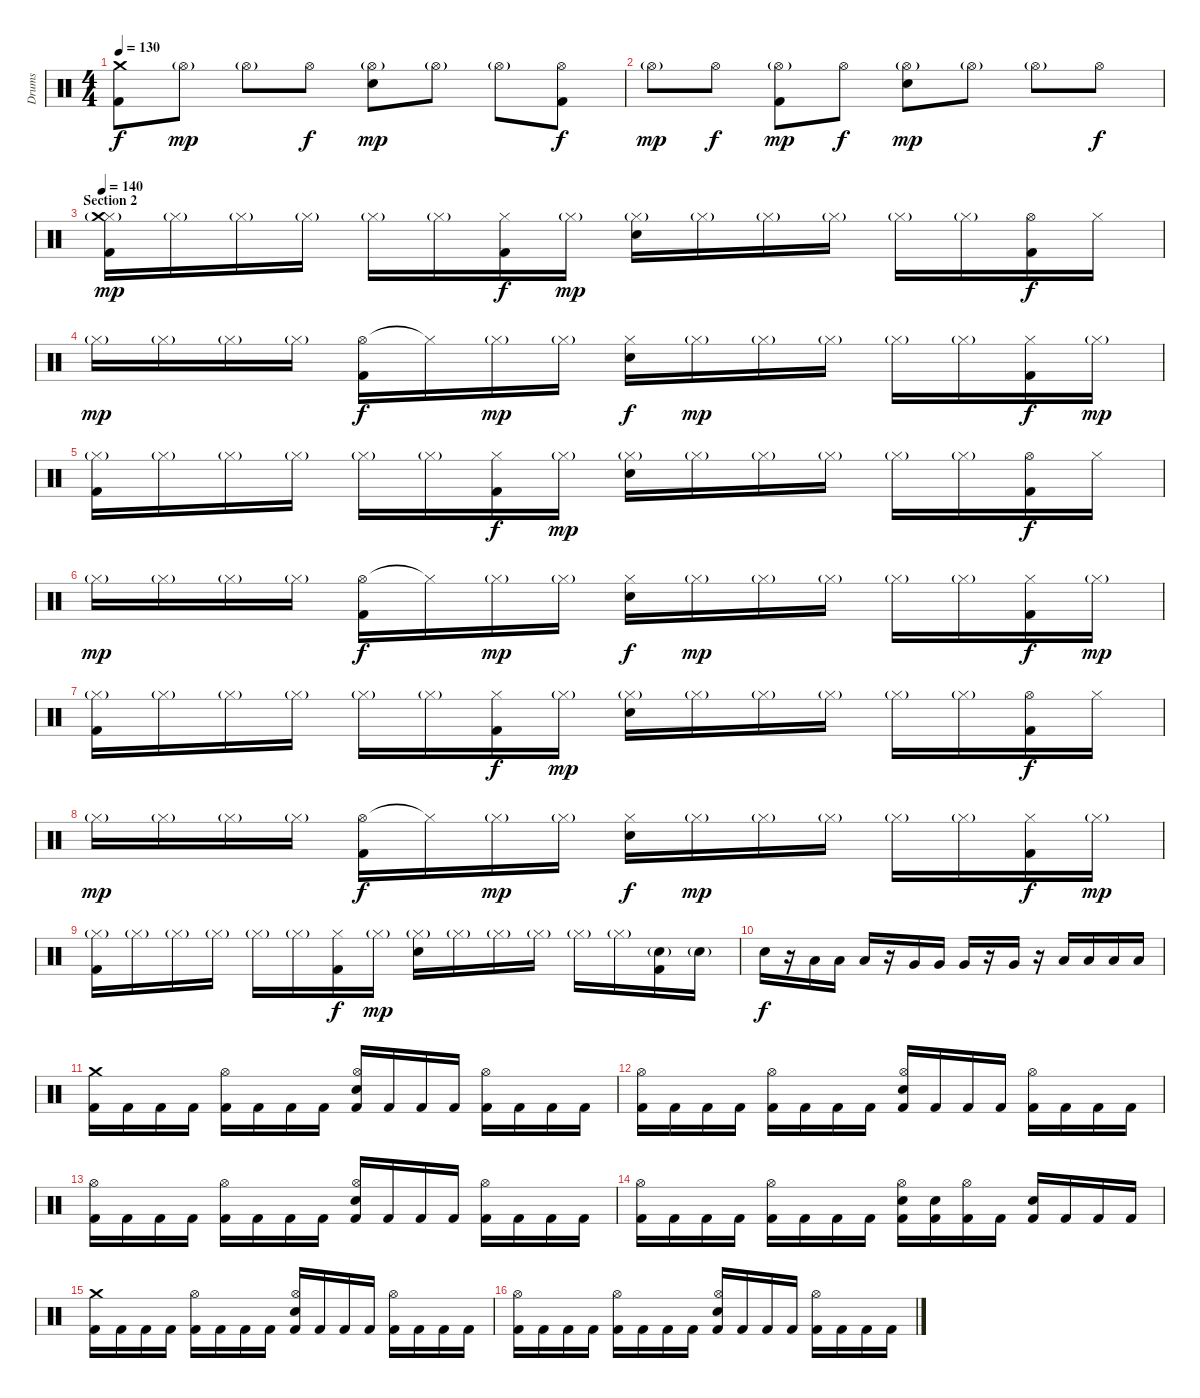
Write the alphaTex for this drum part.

\track ("Drums" "Drums") {instrument percussion}
\staff {score}
\articulation defaults
\ts (4 4)
\tempo 130
\clef neutral
\ks c
("Crash medium (hit)" "Kick (hit) 2").8{dy f} "Hi-Hat (open)"{g}.8{dy mp} "Hi-Hat (open)"{g}.8 "Hi-Hat (open)".8{dy f} ("Hi-Hat (open)"{g} "Electric Snare (hit)").8{dy mp} "Hi-Hat (open)"{g}.8 "Hi-Hat (open)"{g}.8 ("Hi-Hat (open)" "Kick (hit) 2").8{dy f} |
"Hi-Hat (open)"{g}.8{dy mp} "Hi-Hat (open)".8{dy f} ("Hi-Hat (open)"{g} "Kick (hit) 2").8{dy mp} "Hi-Hat (open)".8{dy f} ("Hi-Hat (open)"{g} "Electric Snare (hit)").8{dy mp} "Hi-Hat (open)"{g}.8 "Hi-Hat (open)"{g}.8 "Hi-Hat (open)".8{dy f} |
\section ("" "Section 2")
\tempo 140
("Hi-Hat (closed)"{g} "Crash medium (hit)"{g} "Kick (hit) 2").16{dy mp} "Hi-Hat (closed)"{g}.16 "Hi-Hat (closed)"{g}.16 "Hi-Hat (closed)"{g}.16 "Hi-Hat (closed)"{g}.16 "Hi-Hat (closed)"{g}.16 ("Hi-Hat (closed)" "Kick (hit) 2").16{dy f} "Hi-Hat (closed)"{g}.16{dy mp} ("Hi-Hat (closed)"{g} "Electric Snare (hit)").16 "Hi-Hat (closed)"{g}.16 "Hi-Hat (closed)"{g}.16 "Hi-Hat (closed)"{g}.16 "Hi-Hat (closed)"{g}.16 "Hi-Hat (closed)"{g}.16 ("Hi-Hat (open)" "Kick (hit) 2").16{dy f} "Hi-Hat (closed)".16 |
"Hi-Hat (closed)"{g}.16{dy mp} "Hi-Hat (closed)"{g}.16 "Hi-Hat (closed)"{g}.16 "Hi-Hat (closed)"{g}.16 ("Hi-Hat (open)" "Kick (hit) 2").16{dy f} "Hi-Hat (closed)"{t}.16 "Hi-Hat (closed)"{g}.16{dy mp} "Hi-Hat (closed)"{g}.16 ("Hi-Hat (closed)" "Electric Snare (hit)").16{dy f} "Hi-Hat (closed)"{g}.16{dy mp} "Hi-Hat (closed)"{g}.16 "Hi-Hat (closed)"{g}.16 "Hi-Hat (closed)"{g}.16 "Hi-Hat (closed)"{g}.16 ("Hi-Hat (closed)" "Kick (hit) 2").16{dy f} "Hi-Hat (closed)"{g}.16{dy mp} |
("Hi-Hat (closed)"{g} "Kick (hit) 2").16 "Hi-Hat (closed)"{g}.16 "Hi-Hat (closed)"{g}.16 "Hi-Hat (closed)"{g}.16 "Hi-Hat (closed)"{g}.16 "Hi-Hat (closed)"{g}.16 ("Hi-Hat (closed)" "Kick (hit) 2").16{dy f} "Hi-Hat (closed)"{g}.16{dy mp} ("Hi-Hat (closed)"{g} "Electric Snare (hit)").16 "Hi-Hat (closed)"{g}.16 "Hi-Hat (closed)"{g}.16 "Hi-Hat (closed)"{g}.16 "Hi-Hat (closed)"{g}.16 "Hi-Hat (closed)"{g}.16 ("Hi-Hat (open)" "Kick (hit) 2").16{dy f} "Hi-Hat (closed)".16 |
"Hi-Hat (closed)"{g}.16{dy mp} "Hi-Hat (closed)"{g}.16 "Hi-Hat (closed)"{g}.16 "Hi-Hat (closed)"{g}.16 ("Hi-Hat (open)" "Kick (hit) 2").16{dy f} "Hi-Hat (closed)"{t}.16 "Hi-Hat (closed)"{g}.16{dy mp} "Hi-Hat (closed)"{g}.16 ("Hi-Hat (closed)" "Electric Snare (hit)").16{dy f} "Hi-Hat (closed)"{g}.16{dy mp} "Hi-Hat (closed)"{g}.16 "Hi-Hat (closed)"{g}.16 "Hi-Hat (closed)"{g}.16 "Hi-Hat (closed)"{g}.16 ("Hi-Hat (closed)" "Kick (hit) 2").16{dy f} "Hi-Hat (closed)"{g}.16{dy mp} |
("Hi-Hat (closed)"{g} "Kick (hit) 2").16 "Hi-Hat (closed)"{g}.16 "Hi-Hat (closed)"{g}.16 "Hi-Hat (closed)"{g}.16 "Hi-Hat (closed)"{g}.16 "Hi-Hat (closed)"{g}.16 ("Hi-Hat (closed)" "Kick (hit) 2").16{dy f} "Hi-Hat (closed)"{g}.16{dy mp} ("Hi-Hat (closed)"{g} "Electric Snare (hit)").16 "Hi-Hat (closed)"{g}.16 "Hi-Hat (closed)"{g}.16 "Hi-Hat (closed)"{g}.16 "Hi-Hat (closed)"{g}.16 "Hi-Hat (closed)"{g}.16 ("Hi-Hat (open)" "Kick (hit) 2").16{dy f} "Hi-Hat (closed)".16 |
"Hi-Hat (closed)"{g}.16{dy mp} "Hi-Hat (closed)"{g}.16 "Hi-Hat (closed)"{g}.16 "Hi-Hat (closed)"{g}.16 ("Hi-Hat (open)" "Kick (hit) 2").16{dy f} "Hi-Hat (closed)"{t}.16 "Hi-Hat (closed)"{g}.16{dy mp} "Hi-Hat (closed)"{g}.16 ("Hi-Hat (closed)" "Electric Snare (hit)").16{dy f} "Hi-Hat (closed)"{g}.16{dy mp} "Hi-Hat (closed)"{g}.16 "Hi-Hat (closed)"{g}.16 "Hi-Hat (closed)"{g}.16 "Hi-Hat (closed)"{g}.16 ("Hi-Hat (closed)" "Kick (hit) 2").16{dy f} "Hi-Hat (closed)"{g}.16{dy mp} |
("Hi-Hat (closed)"{g} "Kick (hit) 2").16 "Hi-Hat (closed)"{g}.16 "Hi-Hat (closed)"{g}.16 "Hi-Hat (closed)"{g}.16 "Hi-Hat (closed)"{g}.16 "Hi-Hat (closed)"{g}.16 ("Hi-Hat (closed)" "Kick (hit) 2").16{dy f} "Hi-Hat (closed)"{g}.16{dy mp} ("Hi-Hat (closed)"{g} "Electric Snare (hit)").16 "Hi-Hat (closed)"{g}.16 "Hi-Hat (closed)"{g}.16 "Hi-Hat (closed)"{g}.16 "Hi-Hat (closed)"{g}.16 "Hi-Hat (closed)"{g}.16 ("Electric Snare (hit)"{g} "Kick (hit) 2").16 "Electric Snare (hit)"{g}.16 |
"Electric Snare (hit)".16{dy f} r.16 "Low Tom (hit)".16 "Low Tom (hit)".16 "Low Tom (hit)".16 r.16 "Very Low Tom (hit)".16 "Very Low Tom (hit)".16 "Very Low Tom (hit)".16 r.16 "Very Low Tom (hit)".16 r.16 "Low Floor Tom (hit)".16 "Low Floor Tom (hit)".16 "Low Floor Tom (hit)".16 "Low Floor Tom (hit)".16 |
("Kick (hit) 2" "Crash medium (hit)").16 "Kick (hit) 2".16 "Kick (hit) 2".16 "Kick (hit) 2".16 ("Kick (hit) 2" "Hi-Hat (open)").16 "Kick (hit) 2".16 "Kick (hit) 2".16 "Kick (hit) 2".16 ("Kick (hit) 2" "Electric Snare (hit)" "Hi-Hat (open)").16 "Kick (hit) 2".16 "Kick (hit) 2".16 "Kick (hit) 2".16 ("Kick (hit) 2" "Hi-Hat (open)").16 "Kick (hit) 2".16 "Kick (hit) 2".16 "Kick (hit) 2".16 |
("Kick (hit) 2" "Hi-Hat (open)").16 "Kick (hit) 2".16 "Kick (hit) 2".16 "Kick (hit) 2".16 ("Kick (hit) 2" "Hi-Hat (open)").16 "Kick (hit) 2".16 "Kick (hit) 2".16 "Kick (hit) 2".16 ("Kick (hit) 2" "Electric Snare (hit)" "Hi-Hat (open)").16 "Kick (hit) 2".16 "Kick (hit) 2".16 "Kick (hit) 2".16 ("Kick (hit) 2" "Hi-Hat (open)").16 "Kick (hit) 2".16 "Kick (hit) 2".16 "Kick (hit) 2".16 |
("Kick (hit) 2" "Hi-Hat (open)").16 "Kick (hit) 2".16 "Kick (hit) 2".16 "Kick (hit) 2".16 ("Kick (hit) 2" "Hi-Hat (open)").16 "Kick (hit) 2".16 "Kick (hit) 2".16 "Kick (hit) 2".16 ("Kick (hit) 2" "Electric Snare (hit)" "Hi-Hat (open)").16 "Kick (hit) 2".16 "Kick (hit) 2".16 "Kick (hit) 2".16 ("Kick (hit) 2" "Hi-Hat (open)").16 "Kick (hit) 2".16 "Kick (hit) 2".16 "Kick (hit) 2".16 |
("Kick (hit) 2" "Hi-Hat (open)").16 "Kick (hit) 2".16 "Kick (hit) 2".16 "Kick (hit) 2".16 ("Kick (hit) 2" "Hi-Hat (open)").16 "Kick (hit) 2".16 "Kick (hit) 2".16 "Kick (hit) 2".16 ("Kick (hit) 2" "Electric Snare (hit)" "Hi-Hat (open)").16 ("Kick (hit) 2" "Electric Snare (hit)").16 ("Kick (hit) 2" "Hi-Hat (open)").16 "Kick (hit) 2".16 ("Kick (hit) 2" "Electric Snare (hit)").16 "Kick (hit) 2".16 "Kick (hit) 2".16 "Kick (hit) 2".16 |
("Kick (hit) 2" "Crash medium (hit)").16 "Kick (hit) 2".16 "Kick (hit) 2".16 "Kick (hit) 2".16 ("Kick (hit) 2" "Hi-Hat (open)").16 "Kick (hit) 2".16 "Kick (hit) 2".16 "Kick (hit) 2".16 ("Kick (hit) 2" "Electric Snare (hit)" "Hi-Hat (open)").16 "Kick (hit) 2".16 "Kick (hit) 2".16 "Kick (hit) 2".16 ("Kick (hit) 2" "Hi-Hat (open)").16 "Kick (hit) 2".16 "Kick (hit) 2".16 "Kick (hit) 2".16 |
("Kick (hit) 2" "Hi-Hat (open)").16 "Kick (hit) 2".16 "Kick (hit) 2".16 "Kick (hit) 2".16 ("Kick (hit) 2" "Hi-Hat (open)").16 "Kick (hit) 2".16 "Kick (hit) 2".16 "Kick (hit) 2".16 ("Kick (hit) 2" "Electric Snare (hit)" "Hi-Hat (open)").16 "Kick (hit) 2".16 "Kick (hit) 2".16 "Kick (hit) 2".16 ("Kick (hit) 2" "Hi-Hat (open)").16 "Kick (hit) 2".16 "Kick (hit) 2".16 "Kick (hit) 2".16
